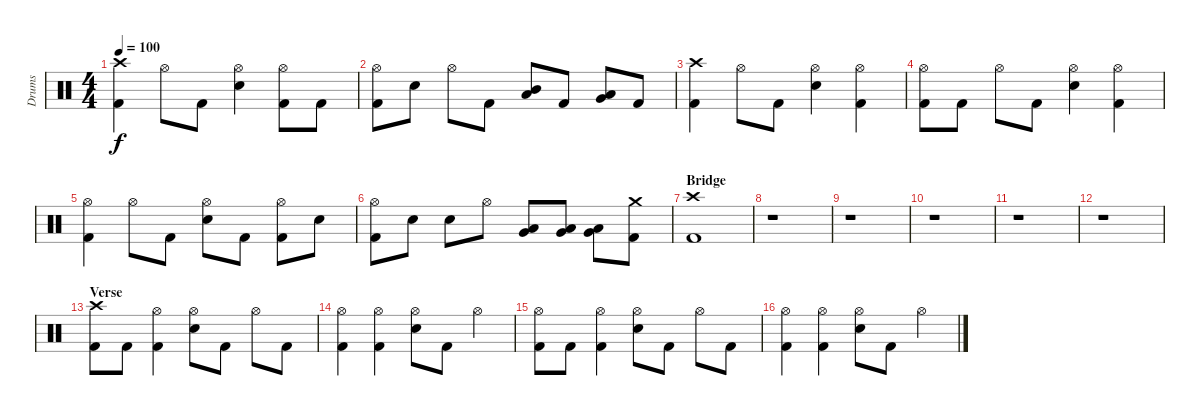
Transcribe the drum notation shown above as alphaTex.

\track ("Drums" "Drums") {instrument percussion}
\staff {score}
\articulation defaults
\ts (4 4)
\tempo 100
\clef neutral
\ks c
("Crash high (hit)" "Kick (hit) 2").4{dy f} "Hi-Hat (open)".8 "Kick (hit) 2".8 ("Hi-Hat (open)" "Electric Snare (hit)").4 ("Hi-Hat (open)" "Kick (hit) 2").8 "Kick (hit) 2".8 |
("Hi-Hat (open)" "Kick (hit) 2").8 "Electric Snare (hit)".8 "Hi-Hat (open)".8 "Kick (hit) 2".8 ("Mid Tom (hit)" "Low Tom (hit)").8 "Kick (hit) 2".8 ("Low Tom (hit)" "Very Low Tom (hit)").8 "Kick (hit) 2".8 |
("Crash high (hit)" "Kick (hit) 2").4 "Hi-Hat (open)".8 "Kick (hit) 2".8 ("Hi-Hat (open)" "Electric Snare (hit)").4 ("Hi-Hat (open)" "Kick (hit) 2").4 |
("Hi-Hat (open)" "Kick (hit) 2").8 "Kick (hit) 2".8 "Hi-Hat (open)".8 "Kick (hit) 2".8 ("Hi-Hat (open)" "Electric Snare (hit)").4 ("Hi-Hat (open)" "Kick (hit) 2").4 |
("Hi-Hat (open)" "Kick (hit) 2").4 "Hi-Hat (open)".8 "Kick (hit) 2".8 ("Hi-Hat (open)" "Electric Snare (hit)").8 "Kick (hit) 2".8 ("Hi-Hat (open)" "Kick (hit) 2").8 "Electric Snare (hit)".8 |
("Hi-Hat (open)" "Kick (hit) 2").8 "Electric Snare (hit)".8 "Electric Snare (hit)".8 "Hi-Hat (open)".8 ("Low Tom (hit)" "Very Low Tom (hit)").8 ("Low Tom (hit)" "Very Low Tom (hit)").8 ("Very Low Tom (hit)" "Low Floor Tom (hit)").8 ("Crash medium (hit)" "Kick (hit) 2").8 |
\section ("" "Bridge")
("Crash high (hit)" "Kick (hit) 2").1 |
r.1 |
r.1 |
r.1 |
r.1 |
r.1 |
\section ("" "Verse")
("Crash high (hit)" "Kick (hit) 2").8 "Kick (hit) 2".8 ("Hi-Hat (open)" "Kick (hit) 2").4 ("Hi-Hat (open)" "Electric Snare (hit)").8 "Kick (hit) 2".8 "Hi-Hat (open)".8 "Kick (hit) 2".8 |
("Hi-Hat (open)" "Kick (hit) 2").4 ("Hi-Hat (open)" "Kick (hit) 2").4 ("Hi-Hat (open)" "Electric Snare (hit)").8 "Kick (hit) 2".8 "Hi-Hat (open)".4 |
("Hi-Hat (open)" "Kick (hit) 2").8 "Kick (hit) 2".8 ("Hi-Hat (open)" "Kick (hit) 2").4 ("Hi-Hat (open)" "Electric Snare (hit)").8 "Kick (hit) 2".8 "Hi-Hat (open)".8 "Kick (hit) 2".8 |
("Hi-Hat (open)" "Kick (hit) 2").4 ("Hi-Hat (open)" "Kick (hit) 2").4 ("Hi-Hat (open)" "Electric Snare (hit)").8 "Kick (hit) 2".8 "Hi-Hat (open)".4
